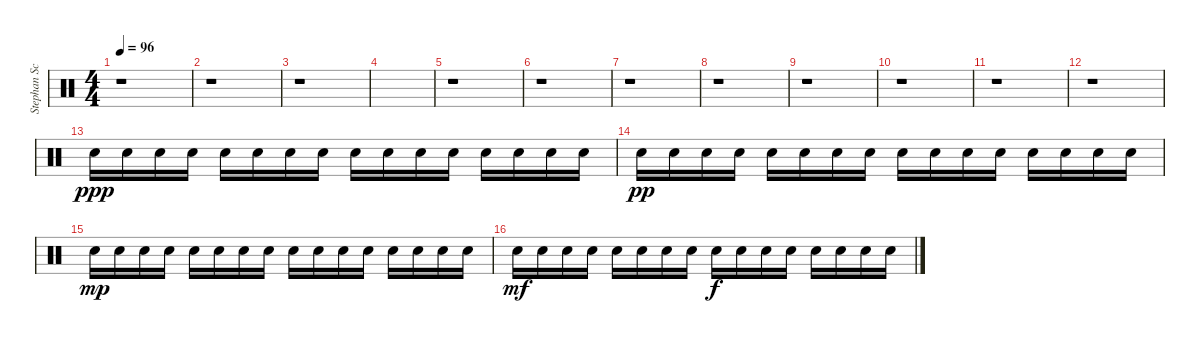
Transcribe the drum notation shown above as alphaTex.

\track ("Stephan Schwarzmann" "Stephan Sc") {instrument percussion}
\staff {score}
\articulation defaults
\ts (4 4)
\tempo 96
\clef neutral
\ks c
r.1{dy ppp} |
r.1 |
r.1 |
|
r.1 |
r.1 |
r.1 |
r.1 |
r.1 |
r.1 |
r.1 |
r.1 |
"Snare (hit) 2".16 "Snare (hit) 2".16 "Snare (hit) 2".16 "Snare (hit) 2".16 "Snare (hit) 2".16 "Snare (hit) 2".16 "Snare (hit) 2".16 "Snare (hit) 2".16 "Snare (hit) 2".16 "Snare (hit) 2".16 "Snare (hit) 2".16 "Snare (hit) 2".16 "Snare (hit) 2".16 "Snare (hit) 2".16 "Snare (hit) 2".16 "Snare (hit) 2".16 |
"Snare (hit) 2".16{dy pp} "Snare (hit) 2".16 "Snare (hit) 2".16 "Snare (hit) 2".16 "Snare (hit) 2".16 "Snare (hit) 2".16 "Snare (hit) 2".16 "Snare (hit) 2".16 "Snare (hit) 2".16 "Snare (hit) 2".16 "Snare (hit) 2".16 "Snare (hit) 2".16 "Snare (hit) 2".16 "Snare (hit) 2".16 "Snare (hit) 2".16 "Snare (hit) 2".16 |
"Snare (hit) 2".16{dy mp} "Snare (hit) 2".16 "Snare (hit) 2".16 "Snare (hit) 2".16 "Snare (hit) 2".16 "Snare (hit) 2".16 "Snare (hit) 2".16 "Snare (hit) 2".16 "Snare (hit) 2".16 "Snare (hit) 2".16 "Snare (hit) 2".16 "Snare (hit) 2".16 "Snare (hit) 2".16 "Snare (hit) 2".16 "Snare (hit) 2".16 "Snare (hit) 2".16 |
"Snare (hit) 2".16{dy mf} "Snare (hit) 2".16 "Snare (hit) 2".16 "Snare (hit) 2".16 "Snare (hit) 2".16 "Snare (hit) 2".16 "Snare (hit) 2".16 "Snare (hit) 2".16 "Snare (hit) 2".16{dy f} "Snare (hit) 2".16 "Snare (hit) 2".16 "Snare (hit) 2".16 "Snare (hit) 2".16 "Snare (hit) 2".16 "Snare (hit) 2".16 "Snare (hit) 2".16
